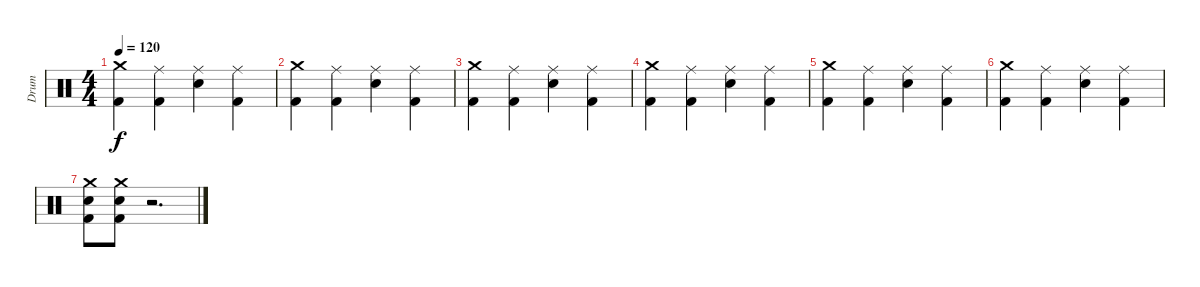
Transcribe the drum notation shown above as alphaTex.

\track ("Drum" "Drum") {instrument percussion}
\staff {score}
\articulation defaults
\ts (4 4)
\tempo 120
\clef neutral
\ks c
("Crash medium (hit)" "Kick (hit) 2").4{dy f} ("Ride (middle)" "Kick (hit) 2").4 ("Ride (middle)" "Snare (hit) 2").4 ("Ride (middle)" "Kick (hit) 2").4 |
("Crash medium (hit)" "Kick (hit) 2").4 ("Ride (middle)" "Kick (hit) 2").4 ("Ride (middle)" "Snare (hit) 2").4 ("Ride (middle)" "Kick (hit) 2").4 |
("Crash medium (hit)" "Kick (hit) 2").4 ("Ride (middle)" "Kick (hit) 2").4 ("Ride (middle)" "Snare (hit) 2").4 ("Ride (middle)" "Kick (hit) 2").4 |
("Crash medium (hit)" "Kick (hit) 2").4 ("Ride (middle)" "Kick (hit) 2").4 ("Ride (middle)" "Snare (hit) 2").4 ("Ride (middle)" "Kick (hit) 2").4 |
("Crash medium (hit)" "Kick (hit) 2").4 ("Ride (middle)" "Kick (hit) 2").4 ("Ride (middle)" "Snare (hit) 2").4 ("Ride (middle)" "Kick (hit) 2").4 |
("Crash medium (hit)" "Kick (hit) 2").4 ("Ride (middle)" "Kick (hit) 2").4 ("Ride (middle)" "Snare (hit) 2").4 ("Ride (middle)" "Kick (hit) 2").4 |
("Crash medium (hit)" "Snare (hit) 2" "Kick (hit) 2").8 ("Crash medium (hit)" "Snare (hit) 2" "Kick (hit) 2").8 r.2{d}
